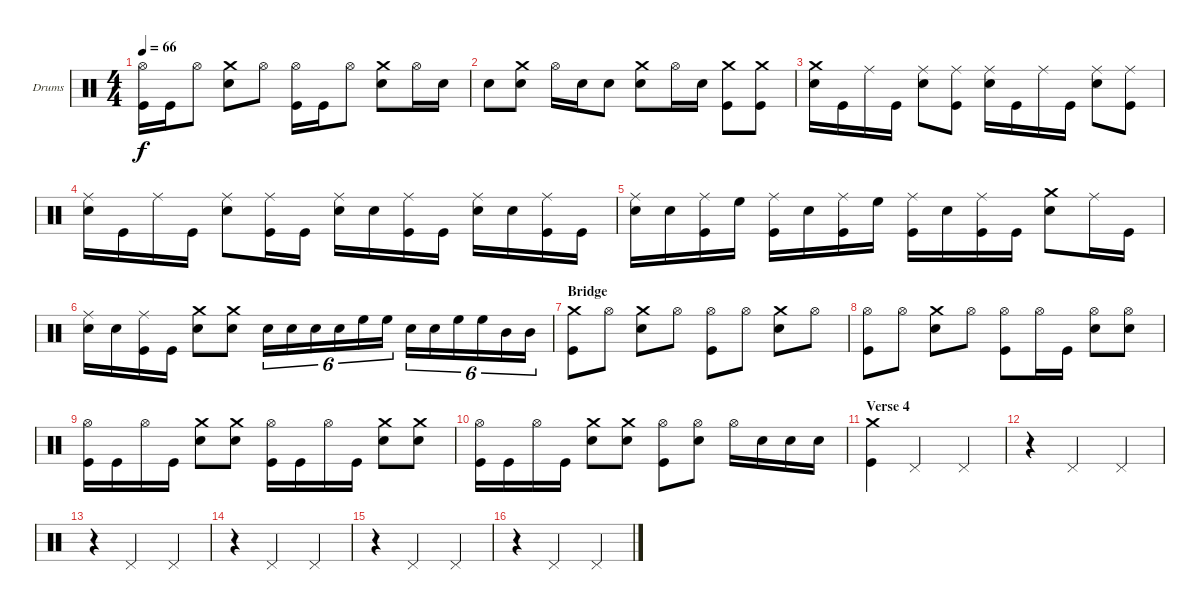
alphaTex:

\bracketExtendMode groupsimilarinstruments
\firstSystemTrackNameOrientation horizontal
\otherSystemsTrackNameOrientation horizontal
\track ("Drumkit" "Drums") {instrument percussion}
\staff {score}
\articulation defaults
\ts (4 4)
\tempo 66
\clef neutral
\ks c
("Hi-Hat (open)" "Kick (hit)").16{dy f} "Kick (hit)".16 "Hi-Hat (open)".8 ("Crash medium (hit)" "Snare (hit) 2").8 "Hi-Hat (open)".8 ("Hi-Hat (open)" "Kick (hit)").16 "Kick (hit)".16 "Hi-Hat (open)".8 ("Crash medium (hit)" "Snare (hit) 2").8 "Hi-Hat (open)".16 "Snare (hit) 2".16 |
"Snare (hit) 2".8 ("Crash medium (hit)" "Snare (hit) 2").8 "Hi-Hat (open)".16 "Snare (hit) 2".16 "Snare (hit) 2".8 ("Crash medium (hit)" "Snare (hit) 2").8 "Hi-Hat (open)".16 "Snare (hit) 2".16 ("Crash medium (hit)" "Kick (hit)").8 ("Crash medium (hit)" "Kick (hit)").8 |
("Crash medium (hit)" "Snare (hit) 2").16 "Kick (hit)".16 "Ride (middle)".16 "Kick (hit)".16 ("Ride (middle)" "Snare (hit) 2").8 ("Ride (middle)" "Kick (hit)").8 ("Ride (middle)" "Snare (hit) 2").16 "Kick (hit)".16 "Ride (middle)".16 "Kick (hit)".16 ("Ride (middle)" "Snare (hit) 2").8 ("Ride (middle)" "Kick (hit)").8 |
("Ride (middle)" "Snare (hit) 2").16 "Kick (hit)".16 "Ride (middle)".16 "Kick (hit)".16 ("Ride (middle)" "Snare (hit) 2").8 ("Ride (middle)" "Kick (hit)").16 "Kick (hit)".16 ("Ride (middle)" "Snare (hit) 2").16 "Snare (hit) 2".16 ("Ride (middle)" "Kick (hit)").16 "Kick (hit)".16 ("Ride (middle)" "Snare (hit) 2").16 "Snare (hit) 2".16 ("Ride (middle)" "Kick (hit)").16 "Kick (hit)".16 |
("Ride (middle)" "Snare (hit) 2").16 "Snare (hit) 2".16 ("Ride (middle)" "Kick (hit)").16 "High Floor Tom (hit)".16 ("Ride (middle)" "Kick (hit)").16 "Snare (hit) 2".16 ("Ride (middle)" "Kick (hit)").16 "High Floor Tom (hit)".16 ("Ride (middle)" "Kick (hit)").16 "Snare (hit) 2".16 ("Ride (middle)" "Kick (hit)").16 "Kick (hit)".16 ("Crash medium (hit)" "Snare (hit) 2").8 "Ride (middle)".16 "Kick (hit)".16 |
("Ride (middle)" "Snare (hit) 2").16 "Snare (hit) 2".16 ("Ride (middle)" "Kick (hit)").16 "Kick (hit)".16 ("Crash medium (hit)" "Snare (hit) 2").8 ("Crash medium (hit)" "Snare (hit) 2").8 "Snare (hit) 2".16{tu (6 4)} "Snare (hit) 2".16{tu (6 4)} "Snare (hit) 2".16{tu (6 4)} "Snare (hit) 2".16{tu (6 4)} "High Floor Tom (hit)".16{tu (6 4)} "High Floor Tom (hit)".16{tu (6 4)} "Snare (hit) 2".16{tu (6 4)} "Snare (hit) 2".16{tu (6 4)} "High Floor Tom (hit)".16{tu (6 4)} "High Floor Tom (hit)".16{tu (6 4)} "Mid Tom (hit)".16{tu (6 4)} "Mid Tom (hit)".16{tu (6 4)} |
\section ("" "Bridge")
("Crash medium (hit)" "Kick (hit)").8 "Hi-Hat (open)".8 ("Crash medium (hit)" "Snare (hit) 2").8 "Hi-Hat (open)".8 ("Hi-Hat (open)" "Kick (hit)").8 "Hi-Hat (open)".8 ("Crash medium (hit)" "Snare (hit) 2").8 "Hi-Hat (open)".8 |
("Hi-Hat (open)" "Kick (hit)").8 "Hi-Hat (open)".8 ("Crash medium (hit)" "Snare (hit) 2").8 "Hi-Hat (open)".8 ("Hi-Hat (open)" "Kick (hit)").8 "Hi-Hat (open)".16 "Kick (hit)".16 ("Hi-Hat (open)" "Snare (hit) 2").8 ("Hi-Hat (open)" "Snare (hit) 2").8 |
("Hi-Hat (open)" "Kick (hit)").16 "Kick (hit)".16 "Hi-Hat (open)".16 "Kick (hit)".16 ("Crash medium (hit)" "Snare (hit) 2").8 ("Crash medium (hit)" "Snare (hit) 2").8 ("Hi-Hat (open)" "Kick (hit)").16 "Kick (hit)".16 "Hi-Hat (open)".16 "Kick (hit)".16 ("Crash medium (hit)" "Snare (hit) 2").8 ("Crash medium (hit)" "Snare (hit) 2").8 |
("Hi-Hat (open)" "Kick (hit)").16 "Kick (hit)".16 "Hi-Hat (open)".16 "Kick (hit)".16 ("Crash medium (hit)" "Snare (hit) 2").8 ("Crash medium (hit)" "Snare (hit) 2").8 ("Hi-Hat (open)" "Kick (hit)").8 ("Hi-Hat (open)" "Snare (hit) 2").8 "Hi-Hat (open)".16 "Snare (hit) 2".16 "Snare (hit) 2".16 "Snare (hit) 2".16 |
\section ("" "Verse 4")
("Crash medium (hit)" "Kick (hit)").4 "Pedal Hi-Hat (hit)".2 "Pedal Hi-Hat (hit)".4 |
r.4 "Pedal Hi-Hat (hit)".2 "Pedal Hi-Hat (hit)".4 |
r.4 "Pedal Hi-Hat (hit)".2 "Pedal Hi-Hat (hit)".4 |
r.4 "Pedal Hi-Hat (hit)".2 "Pedal Hi-Hat (hit)".4 |
r.4 "Pedal Hi-Hat (hit)".2 "Pedal Hi-Hat (hit)".4 |
r.4 "Pedal Hi-Hat (hit)".2 "Pedal Hi-Hat (hit)".4
